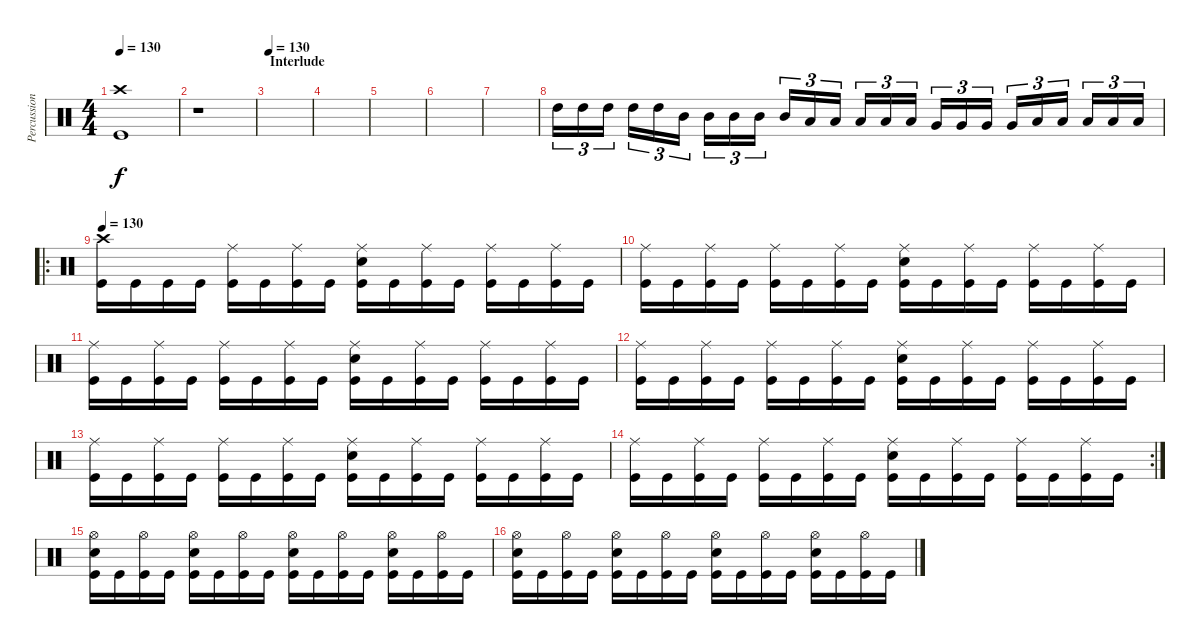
\track ("Percussion" "Percussion") {instrument percussion}
\staff {score}
\articulation defaults
\ts (4 4)
\tempo 130
\clef neutral
\ks c
("Crash high (hit)" "Kick (hit)").1{dy f} |
r.1 |
\section ("" "Interlude")
\tempo 130
|
|
|
|
|
"High Tom (hit)".16{tu (3 2)} "High Tom (hit)".16{tu (3 2)} "High Tom (hit)".16{tu (3 2)} "High Tom (hit)".16{tu (3 2)} "High Tom (hit)".16{tu (3 2)} "Mid Tom (hit)".16{tu (3 2)} "Mid Tom (hit)".16{tu (3 2)} "Mid Tom (hit)".16{tu (3 2)} "Mid Tom (hit)".16{tu (3 2)} "Mid Tom (hit)".16{tu (3 2)} "Low Tom (hit)".16{tu (3 2)} "Low Tom (hit)".16{tu (3 2)} "Low Tom (hit)".16{tu (3 2)} "Low Tom (hit)".16{tu (3 2)} "Low Tom (hit)".16{tu (3 2)} "Very Low Tom (hit)".16{tu (3 2)} "Very Low Tom (hit)".16{tu (3 2)} "Very Low Tom (hit)".16{tu (3 2)} "Very Low Tom (hit)".16{tu (3 2)} "Low Floor Tom (hit)".16{tu (3 2)} "Low Floor Tom (hit)".16{tu (3 2)} "Low Floor Tom (hit)".16{tu (3 2)} "Low Floor Tom (hit)".16{tu (3 2)} "Low Floor Tom (hit)".16{tu (3 2)} |
\ro
\tempo 130
("Crash high (hit)" "Kick (hit)").16 "Kick (hit)".16 "Kick (hit)".16 "Kick (hit)".16 ("Ride (middle)" "Kick (hit)").16 "Kick (hit)".16 ("Ride (middle)" "Kick (hit)").16 "Kick (hit)".16 ("Ride (middle)" "Electric Snare (hit)" "Kick (hit)").16 "Kick (hit)".16 ("Ride (middle)" "Kick (hit)").16 "Kick (hit)".16 ("Ride (middle)" "Kick (hit)").16 "Kick (hit)".16 ("Ride (middle)" "Kick (hit)").16 "Kick (hit)".16 |
("Ride (middle)" "Kick (hit)").16 "Kick (hit)".16 ("Ride (middle)" "Kick (hit)").16 "Kick (hit)".16 ("Ride (middle)" "Kick (hit)").16 "Kick (hit)".16 ("Ride (middle)" "Kick (hit)").16 "Kick (hit)".16 ("Ride (middle)" "Electric Snare (hit)" "Kick (hit)").16 "Kick (hit)".16 ("Ride (middle)" "Kick (hit)").16 "Kick (hit)".16 ("Ride (middle)" "Kick (hit)").16 "Kick (hit)".16 ("Ride (middle)" "Kick (hit)").16 "Kick (hit)".16 |
("Ride (middle)" "Kick (hit)").16 "Kick (hit)".16 ("Ride (middle)" "Kick (hit)").16 "Kick (hit)".16 ("Ride (middle)" "Kick (hit)").16 "Kick (hit)".16 ("Ride (middle)" "Kick (hit)").16 "Kick (hit)".16 ("Ride (middle)" "Electric Snare (hit)" "Kick (hit)").16 "Kick (hit)".16 ("Ride (middle)" "Kick (hit)").16 "Kick (hit)".16 ("Ride (middle)" "Kick (hit)").16 "Kick (hit)".16 ("Ride (middle)" "Kick (hit)").16 "Kick (hit)".16 |
("Ride (middle)" "Kick (hit)").16 "Kick (hit)".16 ("Ride (middle)" "Kick (hit)").16 "Kick (hit)".16 ("Ride (middle)" "Kick (hit)").16 "Kick (hit)".16 ("Ride (middle)" "Kick (hit)").16 "Kick (hit)".16 ("Ride (middle)" "Electric Snare (hit)" "Kick (hit)").16 "Kick (hit)".16 ("Ride (middle)" "Kick (hit)").16 "Kick (hit)".16 ("Ride (middle)" "Kick (hit)").16 "Kick (hit)".16 ("Ride (middle)" "Kick (hit)").16 "Kick (hit)".16 |
("Ride (middle)" "Kick (hit)").16 "Kick (hit)".16 ("Ride (middle)" "Kick (hit)").16 "Kick (hit)".16 ("Ride (middle)" "Kick (hit)").16 "Kick (hit)".16 ("Ride (middle)" "Kick (hit)").16 "Kick (hit)".16 ("Ride (middle)" "Electric Snare (hit)" "Kick (hit)").16 "Kick (hit)".16 ("Ride (middle)" "Kick (hit)").16 "Kick (hit)".16 ("Ride (middle)" "Kick (hit)").16 "Kick (hit)".16 ("Ride (middle)" "Kick (hit)").16 "Kick (hit)".16 |
\rc 2
("Ride (middle)" "Kick (hit)").16 "Kick (hit)".16 ("Ride (middle)" "Kick (hit)").16 "Kick (hit)".16 ("Ride (middle)" "Kick (hit)").16 "Kick (hit)".16 ("Ride (middle)" "Kick (hit)").16 "Kick (hit)".16 ("Ride (middle)" "Electric Snare (hit)" "Kick (hit)").16 "Kick (hit)".16 ("Ride (middle)" "Kick (hit)").16 "Kick (hit)".16 ("Ride (middle)" "Kick (hit)").16 "Kick (hit)".16 ("Ride (middle)" "Kick (hit)").16 "Kick (hit)".16 |
("Hi-Hat (open)" "Electric Snare (hit)" "Kick (hit)").16 "Kick (hit)".16 ("Hi-Hat (open)" "Kick (hit)").16 "Kick (hit)".16 ("Hi-Hat (open)" "Electric Snare (hit)" "Kick (hit)").16 "Kick (hit)".16 ("Hi-Hat (open)" "Kick (hit)").16 "Kick (hit)".16 ("Hi-Hat (open)" "Electric Snare (hit)" "Kick (hit)").16 "Kick (hit)".16 ("Hi-Hat (open)" "Kick (hit)").16 "Kick (hit)".16 ("Hi-Hat (open)" "Electric Snare (hit)" "Kick (hit)").16 "Kick (hit)".16 ("Hi-Hat (open)" "Kick (hit)").16 "Kick (hit)".16 |
("Hi-Hat (open)" "Electric Snare (hit)" "Kick (hit)").16 "Kick (hit)".16 ("Hi-Hat (open)" "Kick (hit)").16 "Kick (hit)".16 ("Hi-Hat (open)" "Electric Snare (hit)" "Kick (hit)").16 "Kick (hit)".16 ("Hi-Hat (open)" "Kick (hit)").16 "Kick (hit)".16 ("Hi-Hat (open)" "Electric Snare (hit)" "Kick (hit)").16 "Kick (hit)".16 ("Hi-Hat (open)" "Kick (hit)").16 "Kick (hit)".16 ("Hi-Hat (open)" "Electric Snare (hit)" "Kick (hit)").16 "Kick (hit)".16 ("Hi-Hat (open)" "Kick (hit)").16 "Kick (hit)".16
